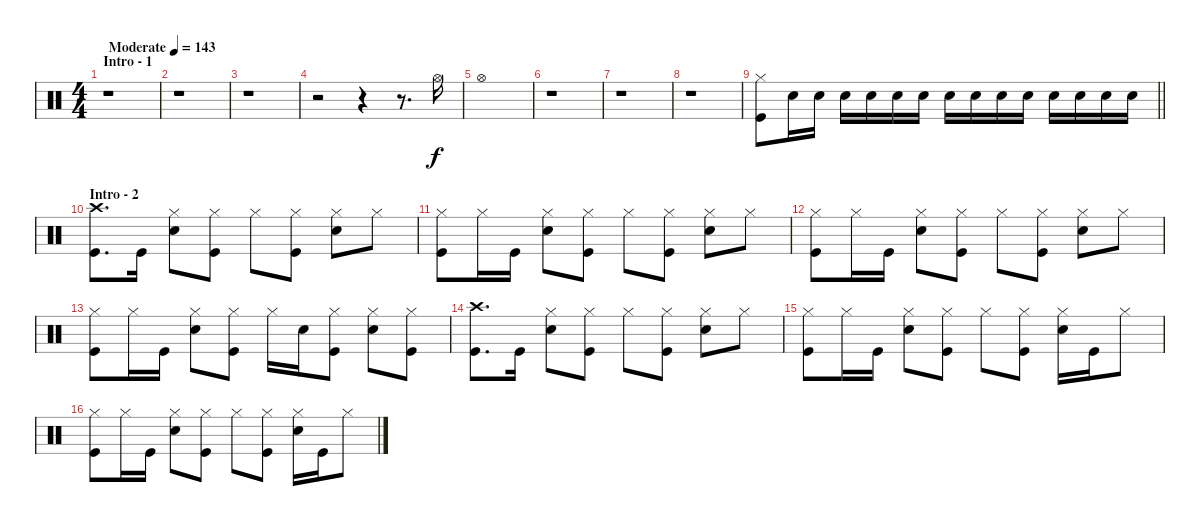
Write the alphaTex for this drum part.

\track "" {instrument percussion}
\staff {score}
\articulation defaults
\ts (4 4)
\section ("" "Intro - 1")
\tempo (143 "Moderate")
\clef neutral
\ks c
r.1{dy f} |
r.1 |
r.1 |
r.2 r.4 r.8{d} "Hi-Hat (open)".16{volume 14} |
"Hi-Hat (open)".1 |
r.1 |
r.1 |
r.1 |
\barLineRight lightlight
("Hi-Hat (closed)" "Kick (hit)").8 "Snare (hit) 2".16{volume 3} "Snare (hit) 2".16{volume 14} "Snare (hit) 2".16 "Snare (hit) 2".16 "Snare (hit) 2".16 "Snare (hit) 2".16 "Snare (hit) 2".16 "Snare (hit) 2".16 "Snare (hit) 2".16 "Snare (hit) 2".16 "Snare (hit) 2".16 "Snare (hit) 2".16 "Snare (hit) 2".16 "Snare (hit) 2".16 |
\section ("" "Intro - 2")
("Crash high (hit)" "Kick (hit)").8{d volume 14} "Kick (hit)".16 ("Hi-Hat (closed)" "Snare (hit) 2").8 ("Hi-Hat (closed)" "Kick (hit)").8 "Hi-Hat (closed)".8 ("Hi-Hat (closed)" "Kick (hit)").8 ("Hi-Hat (closed)" "Snare (hit) 2").8 "Hi-Hat (closed)".8 |
("Hi-Hat (closed)" "Kick (hit)").8 "Hi-Hat (closed)".16 "Kick (hit)".16 ("Hi-Hat (closed)" "Snare (hit) 2").8 ("Hi-Hat (closed)" "Kick (hit)").8 "Hi-Hat (closed)".8 ("Hi-Hat (closed)" "Kick (hit)").8 ("Hi-Hat (closed)" "Snare (hit) 2").8 "Hi-Hat (closed)".8 |
("Hi-Hat (closed)" "Kick (hit)").8 "Hi-Hat (closed)".16 "Kick (hit)".16 ("Hi-Hat (closed)" "Snare (hit) 2").8 ("Hi-Hat (closed)" "Kick (hit)").8 "Hi-Hat (closed)".8 ("Hi-Hat (closed)" "Kick (hit)").8 ("Hi-Hat (closed)" "Snare (hit) 2").8 "Hi-Hat (closed)".8 |
("Hi-Hat (closed)" "Kick (hit)").8 "Hi-Hat (closed)".16 "Kick (hit)".16 ("Hi-Hat (closed)" "Snare (hit) 2").8 ("Hi-Hat (closed)" "Kick (hit)").8 "Hi-Hat (closed)".16 "Snare (hit) 2".16 ("Hi-Hat (closed)" "Kick (hit)").8 ("Hi-Hat (closed)" "Snare (hit) 2").8 ("Hi-Hat (closed)" "Kick (hit)").8 |
("Crash high (hit)" "Kick (hit)").8{d} "Kick (hit)".16 ("Hi-Hat (closed)" "Snare (hit) 2").8 ("Hi-Hat (closed)" "Kick (hit)").8 "Hi-Hat (closed)".8 ("Hi-Hat (closed)" "Kick (hit)").8 ("Hi-Hat (closed)" "Snare (hit) 2").8 "Hi-Hat (closed)".8 |
("Hi-Hat (closed)" "Kick (hit)").8 "Hi-Hat (closed)".16 "Kick (hit)".16 ("Hi-Hat (closed)" "Snare (hit) 2").8 ("Hi-Hat (closed)" "Kick (hit)").8 "Hi-Hat (closed)".8 ("Hi-Hat (closed)" "Kick (hit)").8 ("Hi-Hat (closed)" "Snare (hit) 2").16 "Kick (hit)".16 "Hi-Hat (closed)".8 |
("Hi-Hat (closed)" "Kick (hit)").8 "Hi-Hat (closed)".16 "Kick (hit)".16 ("Hi-Hat (closed)" "Snare (hit) 2").8 ("Hi-Hat (closed)" "Kick (hit)").8 "Hi-Hat (closed)".8 ("Hi-Hat (closed)" "Kick (hit)").8 ("Hi-Hat (closed)" "Snare (hit) 2").16 "Kick (hit)".16 "Hi-Hat (closed)".8
